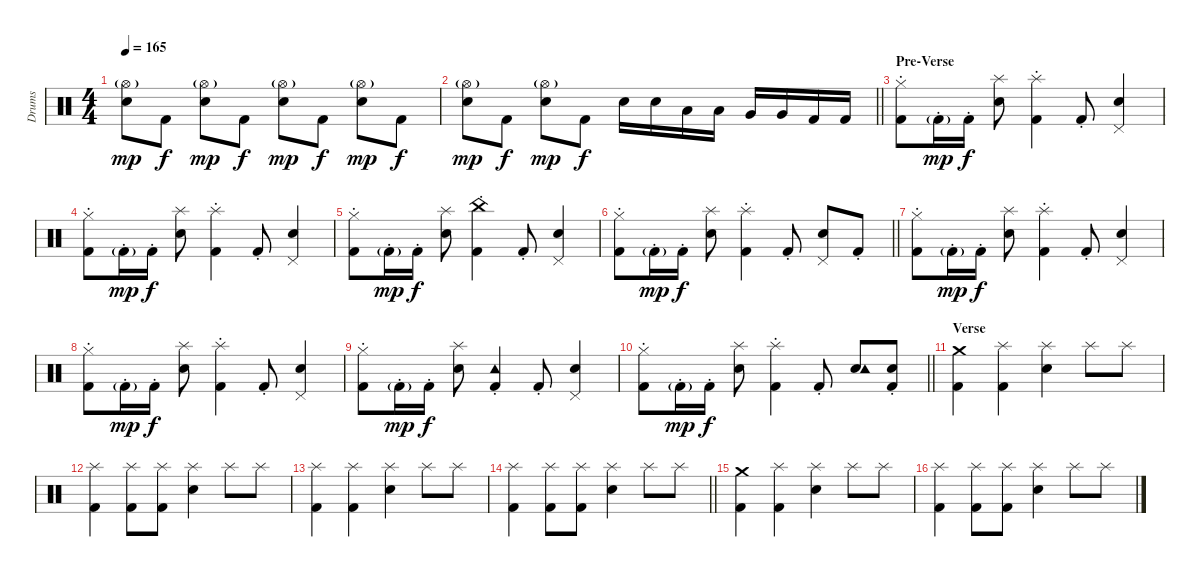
\track ("Drums" "Drums") {instrument percussion}
\staff {score}
\articulation defaults
\ts (4 4)
\tempo 165
\clef neutral
\ks c
("Snare (hit) 2" "Hi-Hat (open)"{g}).8{dy mp} "Kick (hit) 2".8{dy f} ("Snare (hit) 2" "Hi-Hat (open)"{g}).8{dy mp} "Kick (hit) 2".8{dy f} ("Snare (hit) 2" "Hi-Hat (open)"{g}).8{dy mp} "Kick (hit) 2".8{dy f} ("Snare (hit) 2" "Hi-Hat (open)"{g}).8{dy mp} "Kick (hit) 2".8{dy f} |
\barLineRight lightlight
("Snare (hit) 2" "Hi-Hat (open)"{g}).8{dy mp} "Kick (hit) 2".8{dy f} ("Snare (hit) 2" "Hi-Hat (open)"{g}).8{dy mp} "Kick (hit) 2".8{dy f} "Snare (hit) 2".16 "Snare (hit) 2".16 "Low Tom (hit)".16 "Low Tom (hit)".16 "Very Low Tom (hit)".16 "Very Low Tom (hit)".16 "Kick (hit) 2".16 "Kick (hit) 2".16 |
\section ("" "Pre-Verse")
("Kick (hit) 2"{st} "Hi-Hat (closed)").8 "Kick (hit) 2"{g st}.16{dy mp} "Kick (hit) 2"{st}.16{dy f} ("Snare (hit) 2" "Splash (hit)").8 ("Kick (hit) 2"{st} "Splash (hit)").4 "Kick (hit) 2"{st}.8 ("Snare (hit) 2" "Pedal Hi-Hat (hit)").4 |
("Kick (hit) 2"{st} "Hi-Hat (closed)").8 "Kick (hit) 2"{g st}.16{dy mp} "Kick (hit) 2"{st}.16{dy f} ("Snare (hit) 2" "Splash (hit)").8 ("Kick (hit) 2"{st} "Splash (hit)").4 "Kick (hit) 2"{st}.8 ("Snare (hit) 2" "Pedal Hi-Hat (hit)").4 |
("Kick (hit) 2"{st} "Hi-Hat (closed)").8 "Kick (hit) 2"{g st}.16{dy mp} "Kick (hit) 2"{st}.16{dy f} ("Snare (hit) 2" "Splash (hit)").8 ("Kick (hit) 2"{st} "China (hit)").4 "Kick (hit) 2"{st}.8 ("Snare (hit) 2" "Pedal Hi-Hat (hit)").4 |
\barLineRight lightlight
("Kick (hit) 2"{st} "Hi-Hat (closed)").8 "Kick (hit) 2"{g st}.16{dy mp} "Kick (hit) 2"{st}.16{dy f} ("Snare (hit) 2" "Splash (hit)").8 ("Kick (hit) 2"{st} "Splash (hit)").4 "Kick (hit) 2"{st}.8 ("Snare (hit) 2" "Pedal Hi-Hat (hit)").8 "Kick (hit) 2"{st}.8 |
\section ("" "")
("Kick (hit) 2"{st} "Hi-Hat (closed)").8 "Kick (hit) 2"{g st}.16{dy mp} "Kick (hit) 2"{st}.16{dy f} ("Snare (hit) 2" "Splash (hit)").8 ("Kick (hit) 2"{st} "Splash (hit)").4 "Kick (hit) 2"{st}.8 ("Snare (hit) 2" "Pedal Hi-Hat (hit)").4 |
("Kick (hit) 2"{st} "Hi-Hat (closed)").8 "Kick (hit) 2"{g st}.16{dy mp} "Kick (hit) 2"{st}.16{dy f} ("Snare (hit) 2" "Splash (hit)").8 ("Kick (hit) 2"{st} "Splash (hit)").4 "Kick (hit) 2"{st}.8 ("Snare (hit) 2" "Pedal Hi-Hat (hit)").4 |
("Kick (hit) 2"{st} "Hi-Hat (closed)").8 "Kick (hit) 2"{g st}.16{dy mp} "Kick (hit) 2"{st}.16{dy f} ("Snare (hit) 2" "Splash (hit)").8 ("Kick (hit) 2"{st} "Tambourine (hit)").4 "Kick (hit) 2"{st}.8 ("Snare (hit) 2" "Pedal Hi-Hat (hit)").4 |
\barLineRight lightlight
("Kick (hit) 2"{st} "Hi-Hat (closed)").8 "Kick (hit) 2"{g st}.16{dy mp} "Kick (hit) 2"{st}.16{dy f} ("Snare (hit) 2" "Splash (hit)").8 ("Kick (hit) 2"{st} "Splash (hit)").4 "Kick (hit) 2"{st}.8 ("Snare (hit) 2" "Tambourine (hit)").8 ("Kick (hit) 2"{st} "Snare (hit) 2").8 |
\section ("" "Verse")
("Kick (hit) 2" "Crash medium (hit)").4 ("Kick (hit) 2" "Splash (hit)").4 ("Snare (hit) 2" "Splash (hit)").4 "Splash (hit)".8 "Splash (hit)".8 |
("Kick (hit) 2" "Splash (hit)").4 ("Kick (hit) 2" "Splash (hit)").8 ("Kick (hit) 2" "Splash (hit)").8 ("Snare (hit) 2" "Splash (hit)").4 "Splash (hit)".8 "Splash (hit)".8 |
("Kick (hit) 2" "Splash (hit)").4 ("Kick (hit) 2" "Splash (hit)").4 ("Snare (hit) 2" "Splash (hit)").4 "Splash (hit)".8 "Splash (hit)".8 |
\barLineRight lightlight
("Kick (hit) 2" "Splash (hit)").4 ("Kick (hit) 2" "Splash (hit)").8 ("Kick (hit) 2" "Splash (hit)").8 ("Snare (hit) 2" "Splash (hit)").4 "Splash (hit)".8 "Splash (hit)".8 |
\section ("" "")
("Kick (hit) 2" "Crash medium (hit)").4 ("Kick (hit) 2" "Splash (hit)").4 ("Snare (hit) 2" "Splash (hit)").4 "Splash (hit)".8 "Splash (hit)".8 |
("Kick (hit) 2" "Splash (hit)").4 ("Kick (hit) 2" "Splash (hit)").8 ("Kick (hit) 2" "Splash (hit)").8 ("Snare (hit) 2" "Splash (hit)").4 "Splash (hit)".8 "Splash (hit)".8
